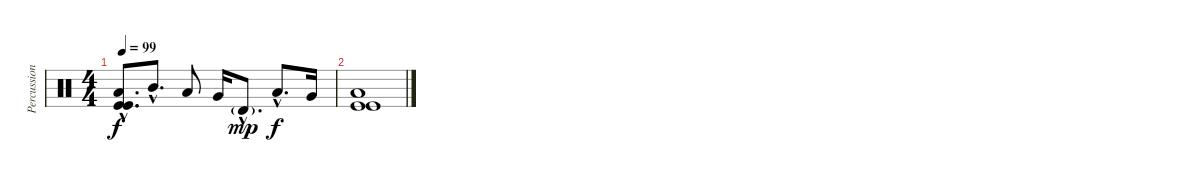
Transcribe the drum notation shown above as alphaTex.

\track ("Percussions2" "Percussion") {instrument percussion}
\staff {score}
\articulation defaults
\ts (4 4)
\tempo 99
\clef neutral
\ks c
("Low Floor Tom (hit)"{hac} "Kick (hit)"{hac} "Kick (hit)"{hac}).8{d dy f} "Mid Tom (hit)"{hac}.8{d} "Low Tom (hit)".8 "Very Low Tom (hit)".16 "Timbale high (hit)"{g hac}.8{d dy mp} "Low Floor Tom (hit)"{hac}.8{d dy f} "Very Low Tom (hit)".16 |
("Low Floor Tom (hit)" "Kick (hit)" "Kick (hit)").1
